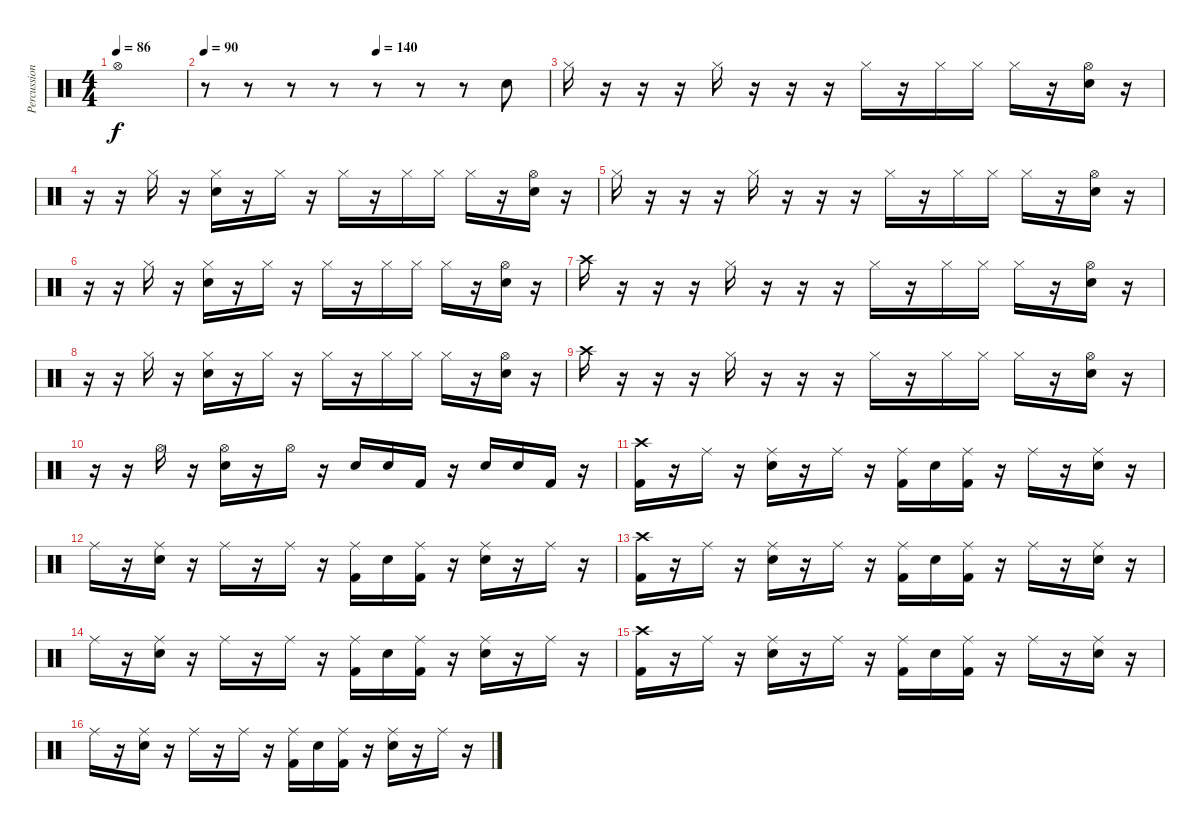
\track ("Percussion" "Percussion") {instrument percussion}
\staff {score}
\articulation defaults
\ts (4 4)
\tempo 86
\clef neutral
\ks c "Hi-Hat (open)".1{dy f}
|
\tempo 90
\tempo (140 0.5)
r.8 r.8 r.8 r.8 r.8 r.8 r.8 "Electric Snare (hit)".8 |
"Hi-Hat (closed)".16 r.16 r.16 r.16 "Hi-Hat (closed)".16 r.16 r.16 r.16 "Hi-Hat (closed)".16 r.16 "Hi-Hat (closed)".16 "Hi-Hat (closed)".16 "Hi-Hat (closed)".16 r.16 ("Hi-Hat (open)" "Electric Snare (hit)").16 r.16 |
r.16 r.16 "Hi-Hat (closed)".16 r.16 ("Hi-Hat (closed)" "Electric Snare (hit)").16 r.16 "Hi-Hat (closed)".16 r.16 "Hi-Hat (closed)".16 r.16 "Hi-Hat (closed)".16 "Hi-Hat (closed)".16 "Hi-Hat (closed)".16 r.16 ("Hi-Hat (open)" "Electric Snare (hit)").16 r.16 |
"Hi-Hat (closed)".16 r.16 r.16 r.16 "Hi-Hat (closed)".16 r.16 r.16 r.16 "Hi-Hat (closed)".16 r.16 "Hi-Hat (closed)".16 "Hi-Hat (closed)".16 "Hi-Hat (closed)".16 r.16 ("Hi-Hat (open)" "Electric Snare (hit)").16 r.16 |
r.16 r.16 "Hi-Hat (closed)".16 r.16 ("Hi-Hat (closed)" "Electric Snare (hit)").16 r.16 "Hi-Hat (closed)".16 r.16 "Hi-Hat (closed)".16 r.16 "Hi-Hat (closed)".16 "Hi-Hat (closed)".16 "Hi-Hat (closed)".16 r.16 ("Hi-Hat (open)" "Electric Snare (hit)").16 r.16 |
"Crash high (hit)".16 r.16 r.16 r.16 "Hi-Hat (closed)".16 r.16 r.16 r.16 "Hi-Hat (closed)".16 r.16 "Hi-Hat (closed)".16 "Hi-Hat (closed)".16 "Hi-Hat (closed)".16 r.16 ("Hi-Hat (open)" "Electric Snare (hit)").16 r.16 |
r.16 r.16 "Hi-Hat (closed)".16 r.16 ("Hi-Hat (closed)" "Electric Snare (hit)").16 r.16 "Hi-Hat (closed)".16 r.16 "Hi-Hat (closed)".16 r.16 "Hi-Hat (closed)".16 "Hi-Hat (closed)".16 "Hi-Hat (closed)".16 r.16 ("Hi-Hat (open)" "Electric Snare (hit)").16 r.16 |
"Crash high (hit)".16 r.16 r.16 r.16 "Hi-Hat (closed)".16 r.16 r.16 r.16 "Hi-Hat (closed)".16 r.16 "Hi-Hat (closed)".16 "Hi-Hat (closed)".16 "Hi-Hat (closed)".16 r.16 ("Hi-Hat (open)" "Electric Snare (hit)").16 r.16 |
r.16 r.16 "Hi-Hat (open)".16 r.16 ("Hi-Hat (open)" "Electric Snare (hit)").16 r.16 "Hi-Hat (open)".16 r.16 "Electric Snare (hit)".16 "Electric Snare (hit)".16 "Kick (hit) 2".16 r.16 "Electric Snare (hit)".16 "Electric Snare (hit)".16 "Kick (hit) 2".16 r.16 |
("Crash high (hit)" "Kick (hit) 2").16 r.16 "Ride (middle)".16 r.16 ("Ride (middle)" "Electric Snare (hit)").16 r.16 "Ride (middle)".16 r.16 ("Ride (middle)" "Kick (hit) 2").16 "Electric Snare (hit)".16 ("Ride (middle)" "Kick (hit) 2").16 r.16 "Ride (middle)".16 r.16 ("Ride (middle)" "Electric Snare (hit)").16 r.16 |
"Ride (middle)".16 r.16 ("Ride (middle)" "Electric Snare (hit)").16 r.16 "Ride (middle)".16 r.16 "Ride (middle)".16 r.16 ("Ride (middle)" "Kick (hit) 2").16 "Electric Snare (hit)".16 ("Ride (middle)" "Kick (hit) 2").16 r.16 ("Ride (middle)" "Electric Snare (hit)").16 r.16 "Ride (middle)".16 r.16 |
("Crash high (hit)" "Kick (hit) 2").16 r.16 "Ride (middle)".16 r.16 ("Ride (middle)" "Electric Snare (hit)").16 r.16 "Ride (middle)".16 r.16 ("Ride (middle)" "Kick (hit) 2").16 "Electric Snare (hit)".16 ("Ride (middle)" "Kick (hit) 2").16 r.16 "Ride (middle)".16 r.16 ("Ride (middle)" "Electric Snare (hit)").16 r.16 |
"Ride (middle)".16 r.16 ("Ride (middle)" "Electric Snare (hit)").16 r.16 "Ride (middle)".16 r.16 "Ride (middle)".16 r.16 ("Ride (middle)" "Kick (hit) 2").16 "Electric Snare (hit)".16 ("Ride (middle)" "Kick (hit) 2").16 r.16 ("Ride (middle)" "Electric Snare (hit)").16 r.16 "Ride (middle)".16 r.16 |
("Crash high (hit)" "Kick (hit) 2").16 r.16 "Ride (middle)".16 r.16 ("Ride (middle)" "Electric Snare (hit)").16 r.16 "Ride (middle)".16 r.16 ("Ride (middle)" "Kick (hit) 2").16 "Electric Snare (hit)".16 ("Ride (middle)" "Kick (hit) 2").16 r.16 "Ride (middle)".16 r.16 ("Ride (middle)" "Electric Snare (hit)").16 r.16 |
"Ride (middle)".16 r.16 ("Ride (middle)" "Electric Snare (hit)").16 r.16 "Ride (middle)".16 r.16 "Ride (middle)".16 r.16 ("Ride (middle)" "Kick (hit) 2").16 "Electric Snare (hit)".16 ("Ride (middle)" "Kick (hit) 2").16 r.16 ("Ride (middle)" "Electric Snare (hit)").16 r.16 "Ride (middle)".16 r.16
